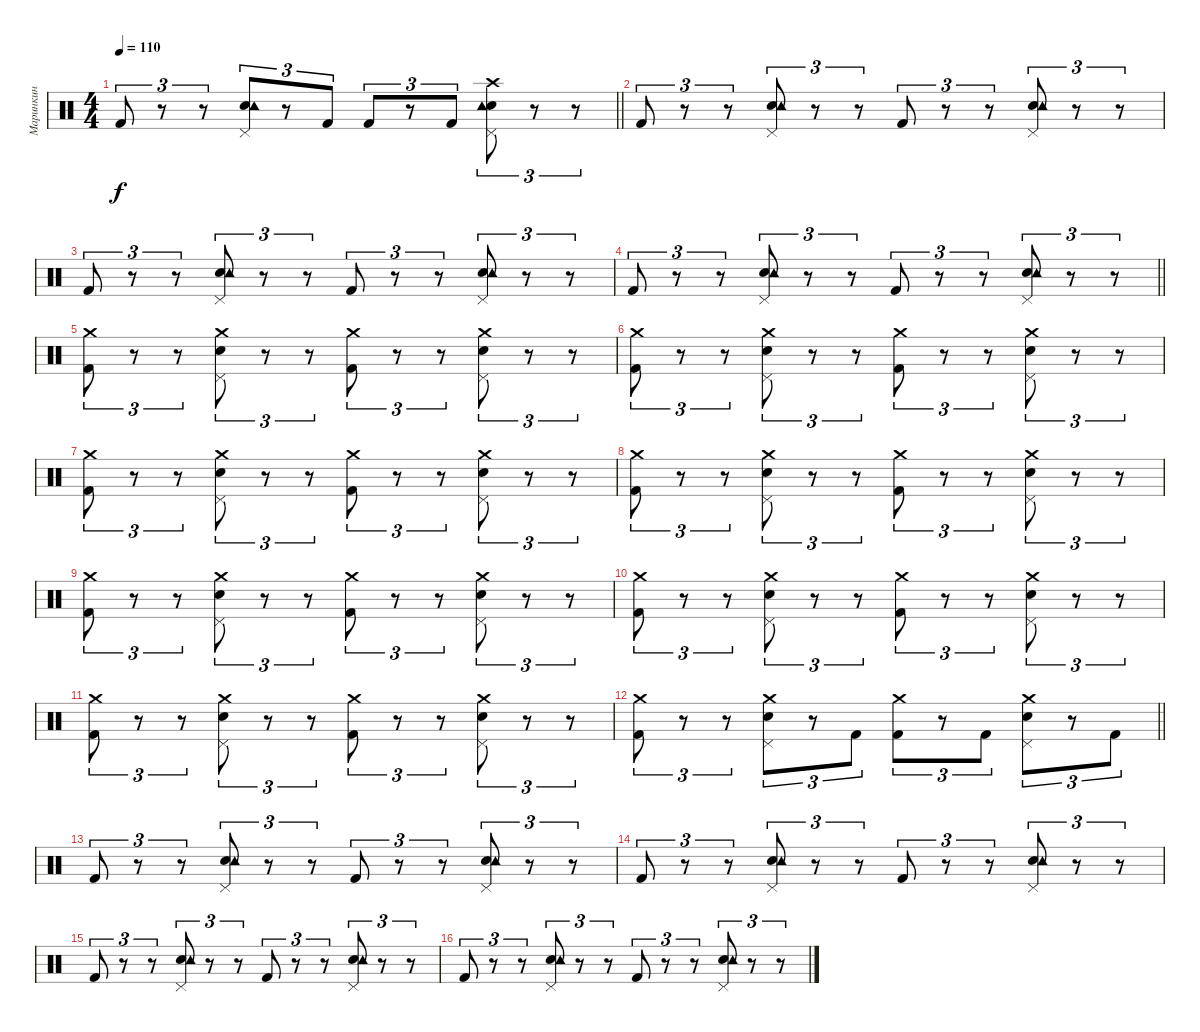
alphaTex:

\track ("Маринкин " "Маринкин ") {instrument percussion}
\staff {score}
\articulation defaults
\ts (4 4)
\tempo 110
\clef neutral
\barLineRight lightlight
\ks c "Kick (hit) 2".8{tu (3 2) dy f}
r.8{tu (3 2)} r.8{tu (3 2)} ("Snare (hit) 2" "Tambourine (hit)" "Pedal Hi-Hat (hit)").8{tu (3 2)} r.8{tu (3 2)} "Kick (hit) 2".8{tu (3 2)} "Kick (hit) 2".8{tu (3 2)} r.8{tu (3 2)} "Kick (hit) 2".8{tu (3 2)} ("Snare (hit) 2" "Tambourine (hit)" "Pedal Hi-Hat (hit)" "Crash high (hit)").8{tu (3 2)} r.8{tu (3 2)} r.8{tu (3 2)} |
"Kick (hit) 2".8{tu (3 2)} r.8{tu (3 2)} r.8{tu (3 2)} ("Snare (hit) 2" "Tambourine (hit)" "Pedal Hi-Hat (hit)").8{tu (3 2)} r.8{tu (3 2)} r.8{tu (3 2)} "Kick (hit) 2".8{tu (3 2)} r.8{tu (3 2)} r.8{tu (3 2)} ("Snare (hit) 2" "Tambourine (hit)" "Pedal Hi-Hat (hit)").8{tu (3 2)} r.8{tu (3 2)} r.8{tu (3 2)} |
"Kick (hit) 2".8{tu (3 2)} r.8{tu (3 2)} r.8{tu (3 2)} ("Snare (hit) 2" "Tambourine (hit)" "Pedal Hi-Hat (hit)").8{tu (3 2)} r.8{tu (3 2)} r.8{tu (3 2)} "Kick (hit) 2".8{tu (3 2)} r.8{tu (3 2)} r.8{tu (3 2)} ("Snare (hit) 2" "Tambourine (hit)" "Pedal Hi-Hat (hit)").8{tu (3 2)} r.8{tu (3 2)} r.8{tu (3 2)} |
\barLineRight lightlight "Kick (hit) 2".8{tu (3 2)}
r.8{tu (3 2)} r.8{tu (3 2)} ("Snare (hit) 2" "Tambourine (hit)" "Pedal Hi-Hat (hit)").8{tu (3 2)} r.8{tu (3 2)} r.8{tu (3 2)} "Kick (hit) 2".8{tu (3 2)} r.8{tu (3 2)} r.8{tu (3 2)} ("Snare (hit) 2" "Tambourine (hit)" "Pedal Hi-Hat (hit)").8{tu (3 2)} r.8{tu (3 2)} r.8{tu (3 2)} |
("Kick (hit) 2" "Crash medium (hit)").8{tu (3 2)} r.8{tu (3 2)} r.8{tu (3 2)} ("Snare (hit) 2" "Crash medium (hit)" "Pedal Hi-Hat (hit)").8{tu (3 2)} r.8{tu (3 2)} r.8{tu (3 2)} ("Kick (hit) 2" "Crash medium (hit)").8{tu (3 2)} r.8{tu (3 2)} r.8{tu (3 2)} ("Snare (hit) 2" "Crash medium (hit)" "Pedal Hi-Hat (hit)").8{tu (3 2)} r.8{tu (3 2)} r.8{tu (3 2)} |
("Kick (hit) 2" "Crash medium (hit)").8{tu (3 2)} r.8{tu (3 2)} r.8{tu (3 2)} ("Snare (hit) 2" "Crash medium (hit)" "Pedal Hi-Hat (hit)").8{tu (3 2)} r.8{tu (3 2)} r.8{tu (3 2)} ("Kick (hit) 2" "Crash medium (hit)").8{tu (3 2)} r.8{tu (3 2)} r.8{tu (3 2)} ("Snare (hit) 2" "Crash medium (hit)" "Pedal Hi-Hat (hit)").8{tu (3 2)} r.8{tu (3 2)} r.8{tu (3 2)} |
("Kick (hit) 2" "Crash medium (hit)").8{tu (3 2)} r.8{tu (3 2)} r.8{tu (3 2)} ("Snare (hit) 2" "Crash medium (hit)" "Pedal Hi-Hat (hit)").8{tu (3 2)} r.8{tu (3 2)} r.8{tu (3 2)} ("Kick (hit) 2" "Crash medium (hit)").8{tu (3 2)} r.8{tu (3 2)} r.8{tu (3 2)} ("Snare (hit) 2" "Crash medium (hit)" "Pedal Hi-Hat (hit)").8{tu (3 2)} r.8{tu (3 2)} r.8{tu (3 2)} |
("Kick (hit) 2" "Crash medium (hit)").8{tu (3 2)} r.8{tu (3 2)} r.8{tu (3 2)} ("Snare (hit) 2" "Crash medium (hit)" "Pedal Hi-Hat (hit)").8{tu (3 2)} r.8{tu (3 2)} r.8{tu (3 2)} ("Kick (hit) 2" "Crash medium (hit)").8{tu (3 2)} r.8{tu (3 2)} r.8{tu (3 2)} ("Snare (hit) 2" "Crash medium (hit)" "Pedal Hi-Hat (hit)").8{tu (3 2)} r.8{tu (3 2)} r.8{tu (3 2)} |
("Kick (hit) 2" "Crash medium (hit)").8{tu (3 2)} r.8{tu (3 2)} r.8{tu (3 2)} ("Snare (hit) 2" "Crash medium (hit)" "Pedal Hi-Hat (hit)").8{tu (3 2)} r.8{tu (3 2)} r.8{tu (3 2)} ("Kick (hit) 2" "Crash medium (hit)").8{tu (3 2)} r.8{tu (3 2)} r.8{tu (3 2)} ("Snare (hit) 2" "Crash medium (hit)" "Pedal Hi-Hat (hit)").8{tu (3 2)} r.8{tu (3 2)} r.8{tu (3 2)} |
("Kick (hit) 2" "Crash medium (hit)").8{tu (3 2)} r.8{tu (3 2)} r.8{tu (3 2)} ("Snare (hit) 2" "Crash medium (hit)" "Pedal Hi-Hat (hit)").8{tu (3 2)} r.8{tu (3 2)} r.8{tu (3 2)} ("Kick (hit) 2" "Crash medium (hit)").8{tu (3 2)} r.8{tu (3 2)} r.8{tu (3 2)} ("Snare (hit) 2" "Crash medium (hit)" "Pedal Hi-Hat (hit)").8{tu (3 2)} r.8{tu (3 2)} r.8{tu (3 2)} |
("Kick (hit) 2" "Crash medium (hit)").8{tu (3 2)} r.8{tu (3 2)} r.8{tu (3 2)} ("Snare (hit) 2" "Crash medium (hit)" "Pedal Hi-Hat (hit)").8{tu (3 2)} r.8{tu (3 2)} r.8{tu (3 2)} ("Kick (hit) 2" "Crash medium (hit)").8{tu (3 2)} r.8{tu (3 2)} r.8{tu (3 2)} ("Snare (hit) 2" "Crash medium (hit)" "Pedal Hi-Hat (hit)").8{tu (3 2)} r.8{tu (3 2)} r.8{tu (3 2)} |
\barLineRight lightlight
("Kick (hit) 2" "Crash medium (hit)").8{tu (3 2)} r.8{tu (3 2)} r.8{tu (3 2)} ("Snare (hit) 2" "Crash medium (hit)" "Pedal Hi-Hat (hit)").8{tu (3 2)} r.8{tu (3 2)} "Kick (hit) 2".8{tu (3 2)} ("Kick (hit) 2" "Crash medium (hit)").8{tu (3 2)} r.8{tu (3 2)} "Kick (hit) 2".8{tu (3 2)} ("Snare (hit) 2" "Crash medium (hit)" "Pedal Hi-Hat (hit)").8{tu (3 2)} r.8{tu (3 2)} "Kick (hit) 2".8{tu (3 2)} |
"Kick (hit) 2".8{tu (3 2)} r.8{tu (3 2)} r.8{tu (3 2)} ("Snare (hit) 2" "Tambourine (hit)" "Pedal Hi-Hat (hit)").8{tu (3 2)} r.8{tu (3 2)} r.8{tu (3 2)} "Kick (hit) 2".8{tu (3 2)} r.8{tu (3 2)} r.8{tu (3 2)} ("Snare (hit) 2" "Tambourine (hit)" "Pedal Hi-Hat (hit)").8{tu (3 2)} r.8{tu (3 2)} r.8{tu (3 2)} |
"Kick (hit) 2".8{tu (3 2)} r.8{tu (3 2)} r.8{tu (3 2)} ("Snare (hit) 2" "Tambourine (hit)" "Pedal Hi-Hat (hit)").8{tu (3 2)} r.8{tu (3 2)} r.8{tu (3 2)} "Kick (hit) 2".8{tu (3 2)} r.8{tu (3 2)} r.8{tu (3 2)} ("Snare (hit) 2" "Tambourine (hit)" "Pedal Hi-Hat (hit)").8{tu (3 2)} r.8{tu (3 2)} r.8{tu (3 2)} |
"Kick (hit) 2".8{tu (3 2)} r.8{tu (3 2)} r.8{tu (3 2)} ("Snare (hit) 2" "Tambourine (hit)" "Pedal Hi-Hat (hit)").8{tu (3 2)} r.8{tu (3 2)} r.8{tu (3 2)} "Kick (hit) 2".8{tu (3 2)} r.8{tu (3 2)} r.8{tu (3 2)} ("Snare (hit) 2" "Tambourine (hit)" "Pedal Hi-Hat (hit)").8{tu (3 2)} r.8{tu (3 2)} r.8{tu (3 2)} |
"Kick (hit) 2".8{tu (3 2)} r.8{tu (3 2)} r.8{tu (3 2)} ("Snare (hit) 2" "Tambourine (hit)" "Pedal Hi-Hat (hit)").8{tu (3 2)} r.8{tu (3 2)} r.8{tu (3 2)} "Kick (hit) 2".8{tu (3 2)} r.8{tu (3 2)} r.8{tu (3 2)} ("Snare (hit) 2" "Tambourine (hit)" "Pedal Hi-Hat (hit)").8{tu (3 2)} r.8{tu (3 2)} r.8{tu (3 2)}
